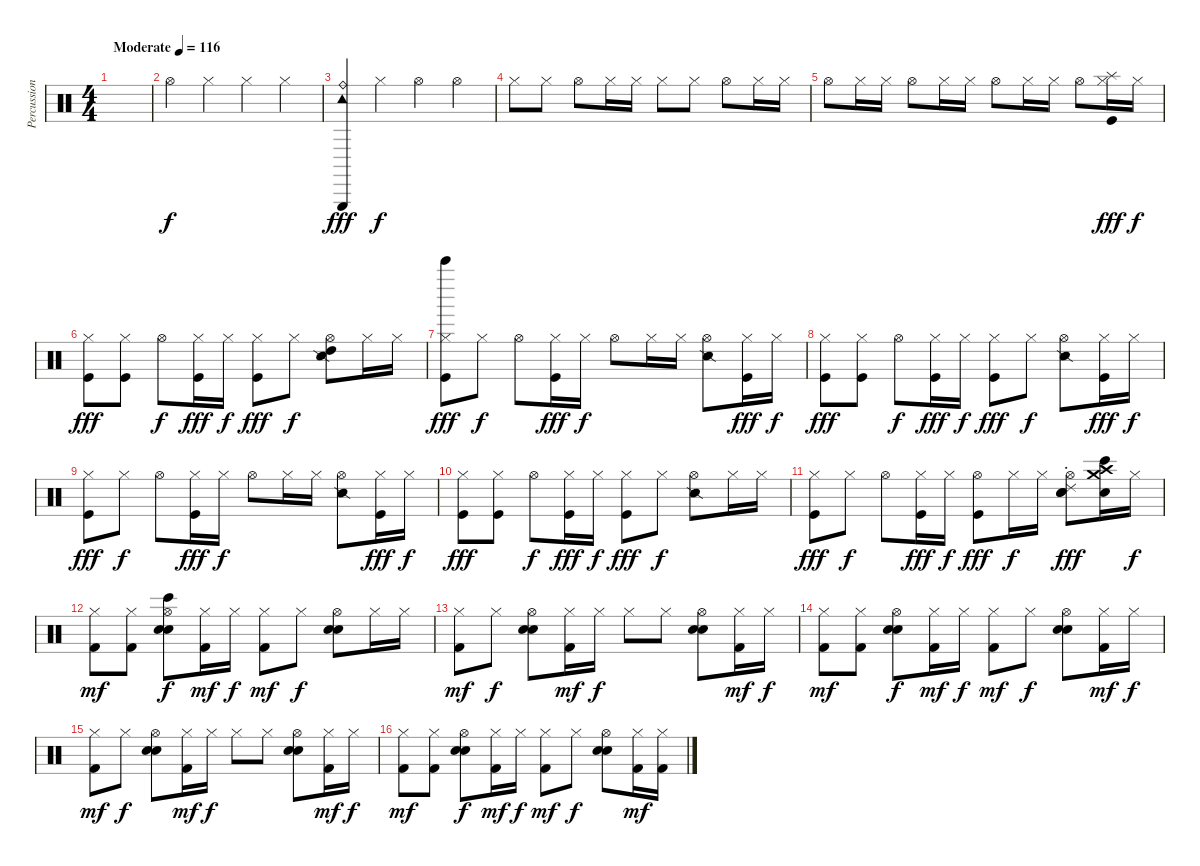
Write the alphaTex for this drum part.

\track ("Percussion" "Percussion") {instrument percussion}
\staff {score}
\articulation defaults
\ts (4 4)
\tempo (116 "Moderate")
\clef neutral
\ks c
|
"Hi-Hat (open)".4 "Hi-Hat (closed)".4 "Hi-Hat (closed)".4 "Hi-Hat (closed)".4 |
("Tambourine (hit)" "Ride (bell)" "Triangle (hit)").4{dy fff} "Hi-Hat (closed)".4{dy f} "Hi-Hat (open)".4 "Hi-Hat (open)".4 |
"Hi-Hat (closed)".8 "Hi-Hat (closed)".8 "Hi-Hat (open)".8 "Hi-Hat (closed)".16 "Hi-Hat (closed)".16 "Hi-Hat (closed)".8 "Hi-Hat (closed)".8 "Hi-Hat (open)".8 "Hi-Hat (closed)".16 "Hi-Hat (closed)".16 |
"Hi-Hat (open)".8 "Hi-Hat (closed)".16 "Hi-Hat (closed)".16 "Hi-Hat (open)".8 "Hi-Hat (closed)".16 "Hi-Hat (closed)".16 "Hi-Hat (open)".8 "Hi-Hat (closed)".16 "Hi-Hat (closed)".16 "Hi-Hat (open)".8 ("Hi-Hat (closed)" "Kick (hit)" "Splash (hit)").16{dy fff} "Hi-Hat (closed)".16{dy f} |
("Hi-Hat (closed)" "Kick (hit)").8{dy fff} ("Hi-Hat (closed)" "Kick (hit)").8 "Hi-Hat (open)".8{dy f} ("Hi-Hat (closed)" "Kick (hit)").16{dy fff} "Hi-Hat (closed)".16{dy f} ("Hi-Hat (closed)" "Kick (hit)").8{dy fff} "Hi-Hat (closed)".8{dy f} ("Hi-Hat (open)" "Snare (side stick) 2" "High Tom (hit)").8 "Hi-Hat (closed)".16 "Hi-Hat (closed)".16 |
("Hi-Hat (closed)" "Kick (hit)" "Bell Tree (hit)").8{dy fff} "Hi-Hat (closed)".8{dy f} "Hi-Hat (open)".8 ("Hi-Hat (closed)" "Kick (hit)").16{dy fff} "Hi-Hat (closed)".16{dy f} "Hi-Hat (open)".8 "Hi-Hat (closed)".16 "Hi-Hat (closed)".16 ("Hi-Hat (open)" "Snare (side stick) 2").8 ("Hi-Hat (closed)" "Kick (hit)").16{dy fff} "Hi-Hat (closed)".16{dy f} |
("Hi-Hat (closed)" "Kick (hit)").8{dy fff} ("Hi-Hat (closed)" "Kick (hit)").8 "Hi-Hat (open)".8{dy f} ("Hi-Hat (closed)" "Kick (hit)").16{dy fff} "Hi-Hat (closed)".16{dy f} ("Hi-Hat (closed)" "Kick (hit)").8{dy fff} "Hi-Hat (closed)".8{dy f} ("Hi-Hat (open)" "Snare (side stick) 2").8 ("Hi-Hat (closed)" "Kick (hit)").16{dy fff} "Hi-Hat (closed)".16{dy f} |
("Hi-Hat (closed)" "Kick (hit)").8{dy fff} "Hi-Hat (closed)".8{dy f} "Hi-Hat (open)".8 ("Hi-Hat (closed)" "Kick (hit)").16{dy fff} "Hi-Hat (closed)".16{dy f} "Hi-Hat (open)".8 "Hi-Hat (closed)".16 "Hi-Hat (closed)".16 ("Hi-Hat (open)" "Snare (side stick) 2").8 ("Hi-Hat (closed)" "Kick (hit)").16{dy fff} "Hi-Hat (closed)".16{dy f} |
("Hi-Hat (closed)" "Kick (hit)").8{dy fff} ("Hi-Hat (closed)" "Kick (hit)").8 "Hi-Hat (open)".8{dy f} ("Hi-Hat (closed)" "Kick (hit)").16{dy fff} "Hi-Hat (closed)".16{dy f} ("Hi-Hat (closed)" "Kick (hit)").8{dy fff} "Hi-Hat (closed)".8{dy f} ("Hi-Hat (open)" "Snare (side stick) 2").8 "Hi-Hat (closed)".16 "Hi-Hat (closed)".16 |
("Hi-Hat (closed)" "Kick (hit)").8{dy fff} "Hi-Hat (closed)".8{dy f} "Hi-Hat (open)".8 ("Hi-Hat (closed)" "Kick (hit)").16{dy fff} "Hi-Hat (closed)".16{dy f} ("Hi-Hat (open)" "Kick (hit)").8{dy fff} "Hi-Hat (closed)".16{dy f} "Hi-Hat (closed)".16 ("Hi-Hat (open)" "Electric Snare (hit)" "Hand Clap (hit)" "Ride (choke) 2").8{dy fff} ("Bongo High (hit)" "Hand Clap (hit)" "Crash medium (hit)" "Crash high (hit)").16 "Hi-Hat (closed)".16{dy f} |
("Hi-Hat (closed)" "Kick (hit) 2").8{dy mf} ("Hi-Hat (closed)" "Kick (hit) 2").8 ("Hi-Hat (open)" "Electric Snare (hit)" "Hand Clap (hit)" "Bongo High (hit)").8{dy f} ("Hi-Hat (closed)" "Kick (hit) 2").16{dy mf} "Hi-Hat (closed)".16{dy f} ("Hi-Hat (closed)" "Kick (hit) 2").8{dy mf} "Hi-Hat (closed)".8{dy f} ("Hi-Hat (open)" "Electric Snare (hit)" "Hand Clap (hit)").8 "Hi-Hat (closed)".16 "Hi-Hat (closed)".16 |
("Hi-Hat (closed)" "Kick (hit) 2").8{dy mf} "Hi-Hat (closed)".8{dy f} ("Hi-Hat (open)" "Electric Snare (hit)" "Hand Clap (hit)").8 ("Hi-Hat (closed)" "Kick (hit) 2").16{dy mf} "Hi-Hat (closed)".16{dy f} "Hi-Hat (closed)".8 "Hi-Hat (closed)".8 ("Hi-Hat (open)" "Electric Snare (hit)" "Hand Clap (hit)").8 ("Hi-Hat (closed)" "Kick (hit) 2").16{dy mf} "Hi-Hat (closed)".16{dy f} |
("Hi-Hat (closed)" "Kick (hit) 2").8{dy mf} ("Hi-Hat (closed)" "Kick (hit) 2").8 ("Hi-Hat (open)" "Electric Snare (hit)" "Hand Clap (hit)").8{dy f} ("Hi-Hat (closed)" "Kick (hit) 2").16{dy mf} "Hi-Hat (closed)".16{dy f} ("Hi-Hat (closed)" "Kick (hit) 2").8{dy mf} "Hi-Hat (closed)".8{dy f} ("Hi-Hat (open)" "Electric Snare (hit)" "Hand Clap (hit)").8 ("Hi-Hat (closed)" "Kick (hit) 2").16{dy mf} "Hi-Hat (closed)".16{dy f} |
("Hi-Hat (closed)" "Kick (hit) 2").8{dy mf} "Hi-Hat (closed)".8{dy f} ("Hi-Hat (open)" "Electric Snare (hit)" "Hand Clap (hit)").8 ("Hi-Hat (closed)" "Kick (hit) 2").16{dy mf} "Hi-Hat (closed)".16{dy f} "Hi-Hat (closed)".8 "Hi-Hat (closed)".8 ("Hi-Hat (open)" "Electric Snare (hit)" "Hand Clap (hit)").8 ("Hi-Hat (closed)" "Kick (hit) 2").16{dy mf} "Hi-Hat (closed)".16{dy f} |
("Hi-Hat (closed)" "Kick (hit) 2").8{dy mf} ("Hi-Hat (closed)" "Kick (hit) 2").8 ("Hi-Hat (open)" "Electric Snare (hit)" "Hand Clap (hit)").8{dy f} ("Hi-Hat (closed)" "Kick (hit) 2").16{dy mf} "Hi-Hat (closed)".16{dy f} ("Hi-Hat (closed)" "Kick (hit) 2").8{dy mf} "Hi-Hat (closed)".8{dy f} ("Hi-Hat (open)" "Electric Snare (hit)" "Hand Clap (hit)").8 ("Hi-Hat (closed)" "Kick (hit) 2").16{dy mf} ("Hi-Hat (closed)" "Kick (hit) 2").16
